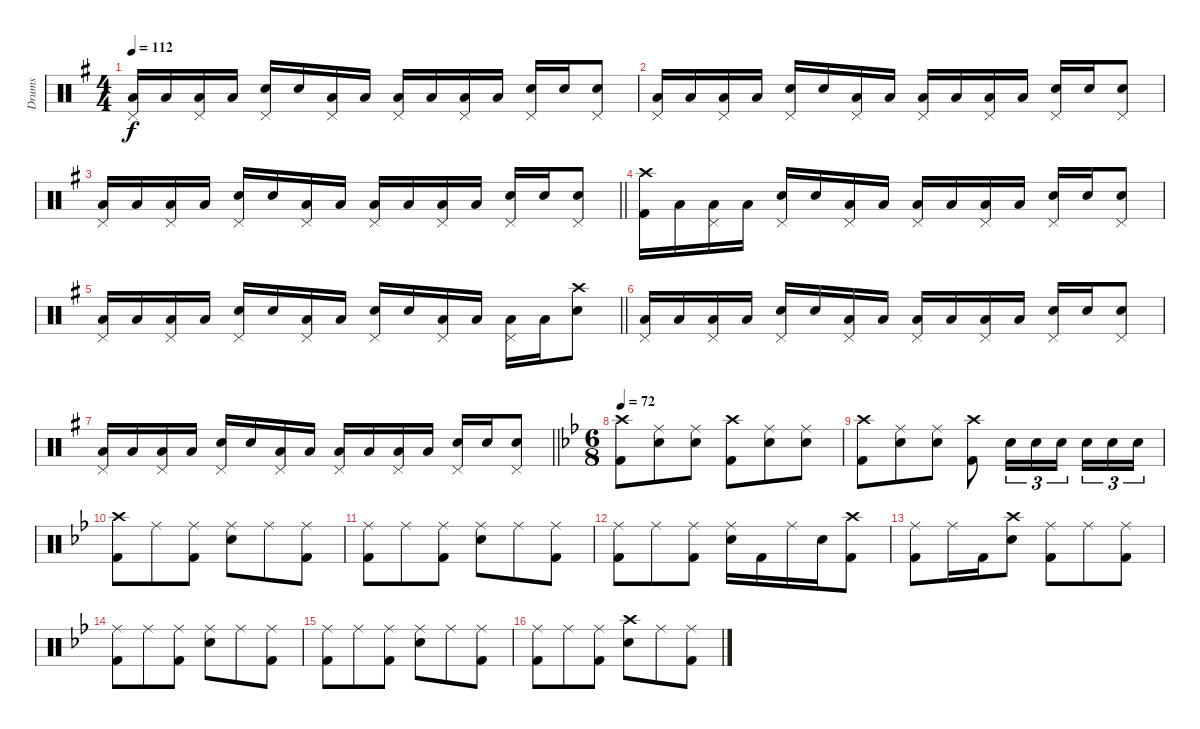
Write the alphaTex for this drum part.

\track ("Drums" "Drums") {instrument percussion}
\staff {score}
\articulation defaults
\ts (4 4)
\tempo 112
\clef neutral
\ks g
("Pedal Hi-Hat (hit)" "Low Floor Tom (hit)").16{dy f} "Low Floor Tom (hit)".16 ("Pedal Hi-Hat (hit)" "Low Floor Tom (hit)").16 "Low Floor Tom (hit)".16 ("Pedal Hi-Hat (hit)" "Electric Snare (hit)").16 "Electric Snare (hit)".16 ("Pedal Hi-Hat (hit)" "Low Floor Tom (hit)").16 "Low Floor Tom (hit)".16 ("Pedal Hi-Hat (hit)" "Low Floor Tom (hit)").16 "Low Floor Tom (hit)".16 ("Pedal Hi-Hat (hit)" "Low Floor Tom (hit)").16 "Low Floor Tom (hit)".16 ("Pedal Hi-Hat (hit)" "Electric Snare (hit)").16 "Electric Snare (hit)".16 ("Pedal Hi-Hat (hit)" "Electric Snare (hit)").8 |
("Pedal Hi-Hat (hit)" "Low Floor Tom (hit)").16 "Low Floor Tom (hit)".16 ("Pedal Hi-Hat (hit)" "Low Floor Tom (hit)").16 "Low Floor Tom (hit)".16 ("Pedal Hi-Hat (hit)" "Electric Snare (hit)").16 "Electric Snare (hit)".16 ("Pedal Hi-Hat (hit)" "Low Floor Tom (hit)").16 "Low Floor Tom (hit)".16 ("Pedal Hi-Hat (hit)" "Low Floor Tom (hit)").16 "Low Floor Tom (hit)".16 ("Pedal Hi-Hat (hit)" "Low Floor Tom (hit)").16 "Low Floor Tom (hit)".16 ("Pedal Hi-Hat (hit)" "Electric Snare (hit)").16 "Electric Snare (hit)".16 ("Pedal Hi-Hat (hit)" "Electric Snare (hit)").8 |
\barLineRight lightlight
("Pedal Hi-Hat (hit)" "Low Floor Tom (hit)").16 "Low Floor Tom (hit)".16 ("Pedal Hi-Hat (hit)" "Low Floor Tom (hit)").16 "Low Floor Tom (hit)".16 ("Pedal Hi-Hat (hit)" "Electric Snare (hit)").16 "Electric Snare (hit)".16 ("Pedal Hi-Hat (hit)" "Low Floor Tom (hit)").16 "Low Floor Tom (hit)".16 ("Pedal Hi-Hat (hit)" "Low Floor Tom (hit)").16 "Low Floor Tom (hit)".16 ("Pedal Hi-Hat (hit)" "Low Floor Tom (hit)").16 "Low Floor Tom (hit)".16 ("Pedal Hi-Hat (hit)" "Electric Snare (hit)").16 "Electric Snare (hit)".16 ("Pedal Hi-Hat (hit)" "Electric Snare (hit)").8 |
("Crash high (hit)" "Kick (hit) 2").16 "Low Floor Tom (hit)".16 ("Pedal Hi-Hat (hit)" "Low Floor Tom (hit)").16 "Low Floor Tom (hit)".16 ("Pedal Hi-Hat (hit)" "Electric Snare (hit)").16 "Electric Snare (hit)".16 ("Pedal Hi-Hat (hit)" "Low Floor Tom (hit)").16 "Low Floor Tom (hit)".16 ("Pedal Hi-Hat (hit)" "Low Floor Tom (hit)").16 "Low Floor Tom (hit)".16 ("Pedal Hi-Hat (hit)" "Low Floor Tom (hit)").16 "Low Floor Tom (hit)".16 ("Pedal Hi-Hat (hit)" "Electric Snare (hit)").16 "Electric Snare (hit)".16 ("Pedal Hi-Hat (hit)" "Electric Snare (hit)").8 |
\barLineRight lightlight
("Pedal Hi-Hat (hit)" "Low Floor Tom (hit)").16 "Low Floor Tom (hit)".16 ("Pedal Hi-Hat (hit)" "Low Floor Tom (hit)").16 "Low Floor Tom (hit)".16 ("Pedal Hi-Hat (hit)" "Electric Snare (hit)").16 "Electric Snare (hit)".16 ("Pedal Hi-Hat (hit)" "Low Floor Tom (hit)").16 "Low Floor Tom (hit)".16 ("Pedal Hi-Hat (hit)" "Electric Snare (hit)").16 "Electric Snare (hit)".16 ("Pedal Hi-Hat (hit)" "Low Floor Tom (hit)").16 "Low Floor Tom (hit)".16 ("Pedal Hi-Hat (hit)" "Low Floor Tom (hit)").16 "Low Floor Tom (hit)".16 ("Crash high (hit)" "Electric Snare (hit)").8 |
("Pedal Hi-Hat (hit)" "Low Floor Tom (hit)").16 "Low Floor Tom (hit)".16 ("Pedal Hi-Hat (hit)" "Low Floor Tom (hit)").16 "Low Floor Tom (hit)".16 ("Pedal Hi-Hat (hit)" "Electric Snare (hit)").16 "Electric Snare (hit)".16 ("Pedal Hi-Hat (hit)" "Low Floor Tom (hit)").16 "Low Floor Tom (hit)".16 ("Pedal Hi-Hat (hit)" "Low Floor Tom (hit)").16 "Low Floor Tom (hit)".16 ("Pedal Hi-Hat (hit)" "Low Floor Tom (hit)").16 "Low Floor Tom (hit)".16 ("Pedal Hi-Hat (hit)" "Electric Snare (hit)").16 "Electric Snare (hit)".16 ("Pedal Hi-Hat (hit)" "Electric Snare (hit)").8 |
\barLineRight lightlight
("Pedal Hi-Hat (hit)" "Low Floor Tom (hit)").16 "Low Floor Tom (hit)".16 ("Pedal Hi-Hat (hit)" "Low Floor Tom (hit)").16 "Low Floor Tom (hit)".16 ("Pedal Hi-Hat (hit)" "Electric Snare (hit)").16 "Electric Snare (hit)".16 ("Pedal Hi-Hat (hit)" "Low Floor Tom (hit)").16 "Low Floor Tom (hit)".16 ("Pedal Hi-Hat (hit)" "Low Floor Tom (hit)").16 "Low Floor Tom (hit)".16 ("Pedal Hi-Hat (hit)" "Low Floor Tom (hit)").16 "Low Floor Tom (hit)".16 ("Pedal Hi-Hat (hit)" "Electric Snare (hit)").16 "Electric Snare (hit)".16 ("Pedal Hi-Hat (hit)" "Electric Snare (hit)").8 |
\ts (6 8)
\tempo 72
\ks bb
("Crash high (hit)" "Kick (hit) 2").8 ("Ride (middle)" "Electric Snare (hit)").8 ("Ride (middle)" "Electric Snare (hit)").8 ("Crash high (hit)" "Kick (hit) 2").8 ("Ride (middle)" "Electric Snare (hit)").8 ("Ride (middle)" "Electric Snare (hit)").8 |
("Crash high (hit)" "Kick (hit) 2").8 ("Ride (middle)" "Electric Snare (hit)").8 ("Ride (middle)" "Electric Snare (hit)").8 ("Crash high (hit)" "Kick (hit) 2").8 "Electric Snare (hit)".16{tu (3 2)} "Electric Snare (hit)".16{tu (3 2)} "Electric Snare (hit)".16{tu (3 2) beam splitsecondary} "Electric Snare (hit)".16{tu (3 2)} "Electric Snare (hit)".16{tu (3 2)} "Electric Snare (hit)".16{tu (3 2)} |
("Crash high (hit)" "Kick (hit) 2").8 "Ride (middle)".8 ("Ride (middle)" "Kick (hit) 2").8 ("Ride (middle)" "Electric Snare (hit)").8 "Ride (middle)".8 ("Ride (middle)" "Kick (hit) 2").8 |
("Ride (middle)" "Kick (hit) 2").8 "Ride (middle)".8 ("Ride (middle)" "Kick (hit) 2").8 ("Ride (middle)" "Electric Snare (hit)").8 "Ride (middle)".8 ("Ride (middle)" "Kick (hit) 2").8 |
("Ride (middle)" "Kick (hit) 2").8 "Ride (middle)".8 ("Ride (middle)" "Kick (hit) 2").8 ("Ride (middle)" "Electric Snare (hit)").16 "Kick (hit) 2".16 "Ride (middle)".16 "Electric Snare (hit)".16 ("Crash high (hit)" "Kick (hit) 2").8 |
("Ride (middle)" "Kick (hit) 2").8 "Ride (middle)".16 "Kick (hit) 2".16 ("Crash high (hit)" "Electric Snare (hit)").8 ("Ride (middle)" "Kick (hit) 2").8 "Ride (middle)".8 ("Ride (middle)" "Kick (hit) 2").8 |
("Ride (middle)" "Kick (hit) 2").8 "Ride (middle)".8 ("Ride (middle)" "Kick (hit) 2").8 ("Ride (middle)" "Electric Snare (hit)").8 "Ride (middle)".8 ("Ride (middle)" "Kick (hit) 2").8 |
("Ride (middle)" "Kick (hit) 2").8 "Ride (middle)".8 ("Ride (middle)" "Kick (hit) 2").8 ("Ride (middle)" "Electric Snare (hit)").8 "Ride (middle)".8 ("Ride (middle)" "Kick (hit) 2").8 |
("Ride (middle)" "Kick (hit) 2").8 "Ride (middle)".8 ("Ride (middle)" "Kick (hit) 2").8 ("Crash high (hit)" "Electric Snare (hit)").8 "Ride (middle)".8 ("Ride (middle)" "Kick (hit) 2").8
